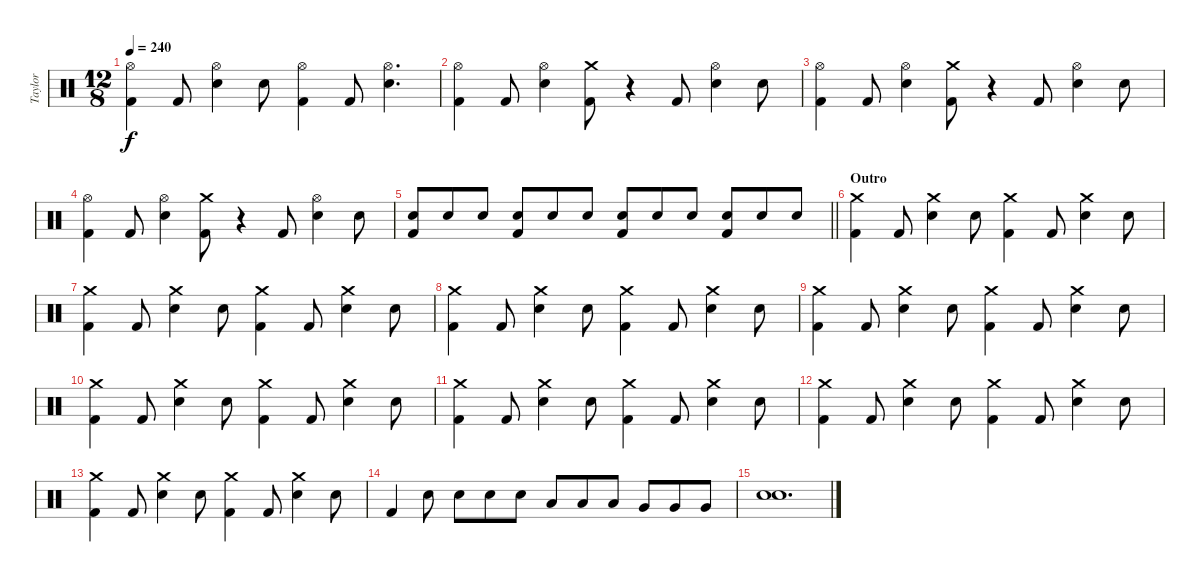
\track ("Taylor" "Taylor") {instrument percussion}
\staff {score}
\articulation defaults
\ts (12 8)
\tempo 240
\clef neutral
\ks c
("Hi-Hat (open)" "Kick (hit) 2").4{dy f} "Kick (hit) 2".8 ("Hi-Hat (open)" "Snare (hit) 2").4 "Snare (hit) 2".8 ("Hi-Hat (open)" "Kick (hit) 2").4 "Kick (hit) 2".8 ("Hi-Hat (open)" "Snare (hit) 2").4{d} |
("Hi-Hat (open)" "Kick (hit) 2").4 "Kick (hit) 2".8 ("Hi-Hat (open)" "Snare (hit) 2").4 ("Crash medium (hit)" "Kick (hit) 2").8 r.4 "Kick (hit) 2".8 ("Hi-Hat (open)" "Snare (hit) 2").4 "Snare (hit) 2".8 |
("Hi-Hat (open)" "Kick (hit) 2").4 "Kick (hit) 2".8 ("Hi-Hat (open)" "Snare (hit) 2").4 ("Crash medium (hit)" "Kick (hit) 2").8 r.4 "Kick (hit) 2".8 ("Hi-Hat (open)" "Snare (hit) 2").4 "Snare (hit) 2".8 |
("Hi-Hat (open)" "Kick (hit) 2").4 "Kick (hit) 2".8 ("Hi-Hat (open)" "Snare (hit) 2").4 ("Crash medium (hit)" "Kick (hit) 2").8 r.4 "Kick (hit) 2".8 ("Hi-Hat (open)" "Snare (hit) 2").4 "Snare (hit) 2".8 |
\barLineRight lightlight
("Snare (hit) 2" "Kick (hit) 2").8 "Snare (hit) 2".8 "Snare (hit) 2".8 ("Snare (hit) 2" "Kick (hit) 2").8 "Snare (hit) 2".8 "Snare (hit) 2".8 ("Snare (hit) 2" "Kick (hit) 2").8 "Snare (hit) 2".8 "Snare (hit) 2".8 ("Snare (hit) 2" "Kick (hit) 2").8 "Snare (hit) 2".8 "Snare (hit) 2".8 |
\section ("" "Outro")
("Crash medium (hit)" "Kick (hit) 2").4 "Kick (hit) 2".8 ("Crash medium (hit)" "Snare (hit) 2").4 "Snare (hit) 2".8 ("Crash medium (hit)" "Kick (hit) 2").4 "Kick (hit) 2".8 ("Crash medium (hit)" "Snare (hit) 2").4 "Snare (hit) 2".8 |
("Crash medium (hit)" "Kick (hit) 2").4 "Kick (hit) 2".8 ("Crash medium (hit)" "Snare (hit) 2").4 "Snare (hit) 2".8 ("Crash medium (hit)" "Kick (hit) 2").4 "Kick (hit) 2".8 ("Crash medium (hit)" "Snare (hit) 2").4 "Snare (hit) 2".8 |
("Crash medium (hit)" "Kick (hit) 2").4 "Kick (hit) 2".8 ("Crash medium (hit)" "Snare (hit) 2").4 "Snare (hit) 2".8 ("Crash medium (hit)" "Kick (hit) 2").4 "Kick (hit) 2".8 ("Crash medium (hit)" "Snare (hit) 2").4 "Snare (hit) 2".8 |
("Crash medium (hit)" "Kick (hit) 2").4 "Kick (hit) 2".8 ("Crash medium (hit)" "Snare (hit) 2").4 "Snare (hit) 2".8 ("Crash medium (hit)" "Kick (hit) 2").4 "Kick (hit) 2".8 ("Crash medium (hit)" "Snare (hit) 2").4 "Snare (hit) 2".8 |
("Crash medium (hit)" "Kick (hit) 2").4 "Kick (hit) 2".8 ("Crash medium (hit)" "Snare (hit) 2").4 "Snare (hit) 2".8 ("Crash medium (hit)" "Kick (hit) 2").4 "Kick (hit) 2".8 ("Crash medium (hit)" "Snare (hit) 2").4 "Snare (hit) 2".8 |
("Crash medium (hit)" "Kick (hit) 2").4 "Kick (hit) 2".8 ("Crash medium (hit)" "Snare (hit) 2").4 "Snare (hit) 2".8 ("Crash medium (hit)" "Kick (hit) 2").4 "Kick (hit) 2".8 ("Crash medium (hit)" "Snare (hit) 2").4 "Snare (hit) 2".8 |
("Crash medium (hit)" "Kick (hit) 2").4 "Kick (hit) 2".8 ("Crash medium (hit)" "Snare (hit) 2").4 "Snare (hit) 2".8 ("Crash medium (hit)" "Kick (hit) 2").4 "Kick (hit) 2".8 ("Crash medium (hit)" "Snare (hit) 2").4 "Snare (hit) 2".8 |
("Crash medium (hit)" "Kick (hit) 2").4 "Kick (hit) 2".8 ("Crash medium (hit)" "Snare (hit) 2").4 "Snare (hit) 2".8 ("Crash medium (hit)" "Kick (hit) 2").4 "Kick (hit) 2".8 ("Crash medium (hit)" "Snare (hit) 2").4 "Snare (hit) 2".8 |
"Kick (hit) 2".4 "Snare (hit) 2".8 "Snare (hit) 2".8 "Snare (hit) 2".8 "Snare (hit) 2".8 "Low Tom (hit)".8 "Low Tom (hit)".8 "Low Tom (hit)".8 "Very Low Tom (hit)".8 "Very Low Tom (hit)".8 "Very Low Tom (hit)".8 |
("Snare (hit) 2" "Snare (hit) 2").1{d}
